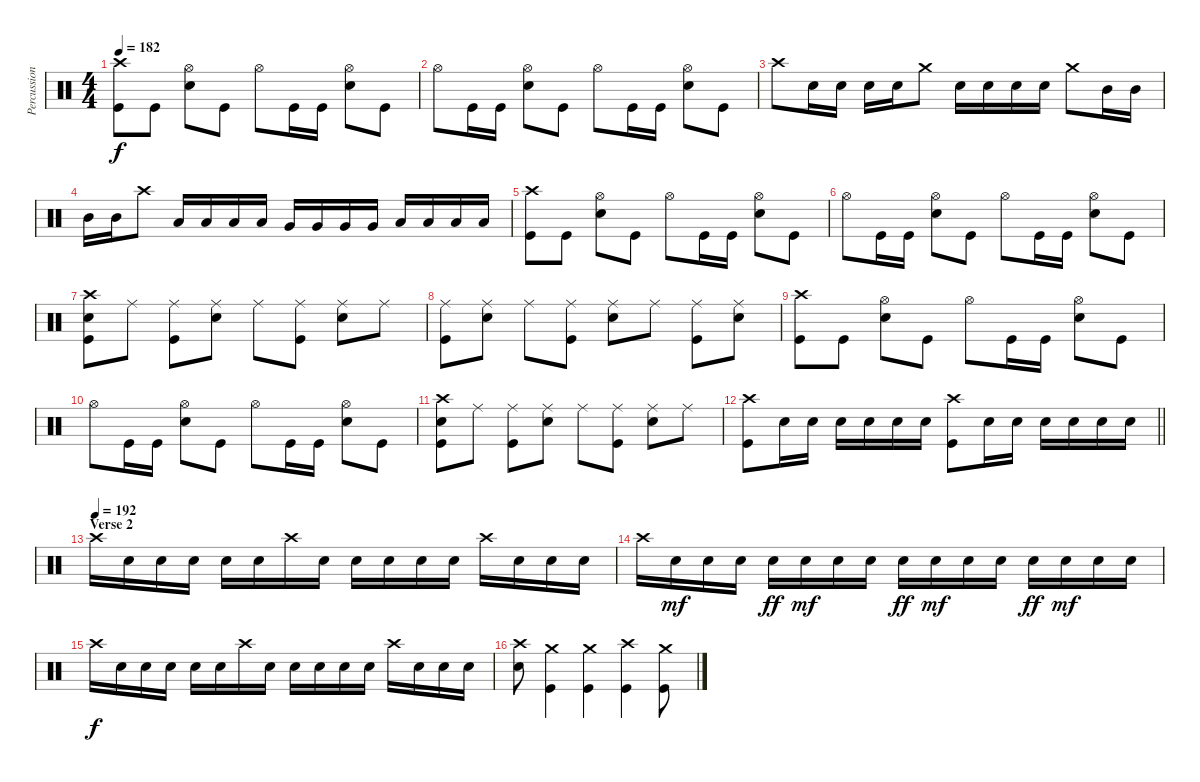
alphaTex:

\track ("Percussion" "Percussion") {instrument percussion}
\staff {score}
\articulation defaults
\ts (4 4)
\tempo 182
\clef neutral
\ks c
("Crash high (hit)" "Kick (hit)").8{dy f} "Kick (hit)".8 ("Snare (hit) 2" "Hi-Hat (open)").8 "Kick (hit)".8 "Hi-Hat (open)".8 "Kick (hit)".16 "Kick (hit)".16 ("Snare (hit) 2" "Hi-Hat (open)").8 "Kick (hit)".8 |
"Hi-Hat (open)".8 "Kick (hit)".16 "Kick (hit)".16 ("Snare (hit) 2" "Hi-Hat (open)").8 "Kick (hit)".8 "Hi-Hat (open)".8 "Kick (hit)".16 "Kick (hit)".16 ("Snare (hit) 2" "Hi-Hat (open)").8 "Kick (hit)".8 |
"Crash high (hit)".8 "Snare (hit) 2".16 "Snare (hit) 2".16 "Snare (hit) 2".16 "Snare (hit) 2".16 "Crash medium (hit)".8 "Snare (hit) 2".16 "Snare (hit) 2".16 "Snare (hit) 2".16 "Snare (hit) 2".16 "Crash medium (hit)".8 "Mid Tom (hit)".16 "Mid Tom (hit)".16 |
"Mid Tom (hit)".16 "Mid Tom (hit)".16 "Crash high (hit)".8 "Low Tom (hit)".16 "Low Tom (hit)".16 "Low Tom (hit)".16 "Low Tom (hit)".16 "Very Low Tom (hit)".16 "Very Low Tom (hit)".16 "Very Low Tom (hit)".16 "Very Low Tom (hit)".16 "Low Floor Tom (hit)".16 "Low Floor Tom (hit)".16 "Low Floor Tom (hit)".16 "Low Floor Tom (hit)".16 |
("Crash high (hit)" "Kick (hit)").8 "Kick (hit)".8 ("Snare (hit) 2" "Hi-Hat (open)").8 "Kick (hit)".8 "Hi-Hat (open)".8 "Kick (hit)".16 "Kick (hit)".16 ("Snare (hit) 2" "Hi-Hat (open)").8 "Kick (hit)".8 |
"Hi-Hat (open)".8 "Kick (hit)".16 "Kick (hit)".16 ("Snare (hit) 2" "Hi-Hat (open)").8 "Kick (hit)".8 "Hi-Hat (open)".8 "Kick (hit)".16 "Kick (hit)".16 ("Snare (hit) 2" "Hi-Hat (open)").8 "Kick (hit)".8 |
("Kick (hit)" "Crash high (hit)" "Snare (hit) 2").8 "Ride (middle)".8 ("Ride (middle)" "Kick (hit)").8 ("Snare (hit) 2" "Ride (middle)").8 "Ride (middle)".8 ("Ride (middle)" "Kick (hit)").8 ("Ride (middle)" "Snare (hit) 2").8 "Ride (middle)".8 |
("Ride (middle)" "Kick (hit)").8 ("Ride (middle)" "Snare (hit) 2").8 "Ride (middle)".8 ("Ride (middle)" "Kick (hit)").8 ("Ride (middle)" "Snare (hit) 2").8 "Ride (middle)".8 ("Ride (middle)" "Kick (hit)").8 ("Ride (middle)" "Snare (hit) 2").8 |
("Crash high (hit)" "Kick (hit)").8 "Kick (hit)".8 ("Snare (hit) 2" "Hi-Hat (open)").8 "Kick (hit)".8 "Hi-Hat (open)".8 "Kick (hit)".16 "Kick (hit)".16 ("Snare (hit) 2" "Hi-Hat (open)").8 "Kick (hit)".8 |
"Hi-Hat (open)".8 "Kick (hit)".16 "Kick (hit)".16 ("Snare (hit) 2" "Hi-Hat (open)").8 "Kick (hit)".8 "Hi-Hat (open)".8 "Kick (hit)".16 "Kick (hit)".16 ("Snare (hit) 2" "Hi-Hat (open)").8 "Kick (hit)".8 |
("Kick (hit)" "Crash high (hit)" "Snare (hit) 2").8 "Ride (middle)".8 ("Ride (middle)" "Kick (hit)").8 ("Snare (hit) 2" "Ride (middle)").8 "Ride (middle)".8 ("Ride (middle)" "Kick (hit)").8 ("Ride (middle)" "Snare (hit) 2").8 "Ride (middle)".8 |
\barLineRight lightlight
("Crash high (hit)" "Kick (hit)").8 "Snare (hit) 2".16 "Snare (hit) 2".16 "Snare (hit) 2".16 "Snare (hit) 2".16 "Snare (hit) 2".16 "Snare (hit) 2".16 ("Crash high (hit)" "Kick (hit)").8 "Snare (hit) 2".16 "Snare (hit) 2".16 "Snare (hit) 2".16 "Snare (hit) 2".16 "Snare (hit) 2".16 "Snare (hit) 2".16 |
\section ("" "Verse 2")
\tempo (192)
"Crash high (hit)".16 "Snare (hit) 2".16 "Snare (hit) 2".16 "Snare (hit) 2".16 "Snare (hit) 2".16 "Snare (hit) 2".16 "Crash high (hit)".16 "Snare (hit) 2".16 "Snare (hit) 2".16 "Snare (hit) 2".16 "Snare (hit) 2".16 "Snare (hit) 2".16 "Crash high (hit)".16 "Snare (hit) 2".16 "Snare (hit) 2".16 "Snare (hit) 2".16 |
"Crash high (hit)".16 "Snare (hit) 2".16{dy mf} "Snare (hit) 2".16 "Snare (hit) 2".16 "Snare (hit) 2".16{dy ff} "Snare (hit) 2".16{dy mf} "Snare (hit) 2".16 "Snare (hit) 2".16 "Snare (hit) 2".16{dy ff} "Snare (hit) 2".16{dy mf} "Snare (hit) 2".16 "Snare (hit) 2".16 "Snare (hit) 2".16{dy ff} "Snare (hit) 2".16{dy mf} "Snare (hit) 2".16 "Snare (hit) 2".16 |
"Crash high (hit)".16{dy f} "Snare (hit) 2".16 "Snare (hit) 2".16 "Snare (hit) 2".16 "Snare (hit) 2".16 "Snare (hit) 2".16 "Crash high (hit)".16 "Snare (hit) 2".16 "Snare (hit) 2".16 "Snare (hit) 2".16 "Snare (hit) 2".16 "Snare (hit) 2".16 "Crash high (hit)".16 "Snare (hit) 2".16 "Snare (hit) 2".16 "Snare (hit) 2".16 |
("Crash high (hit)" "Snare (hit) 2").8 ("Crash medium (hit)" "Kick (hit)").4 ("Crash medium (hit)" "Kick (hit)").4 ("Crash high (hit)" "Kick (hit)").4 ("Crash medium (hit)" "Kick (hit)").8
